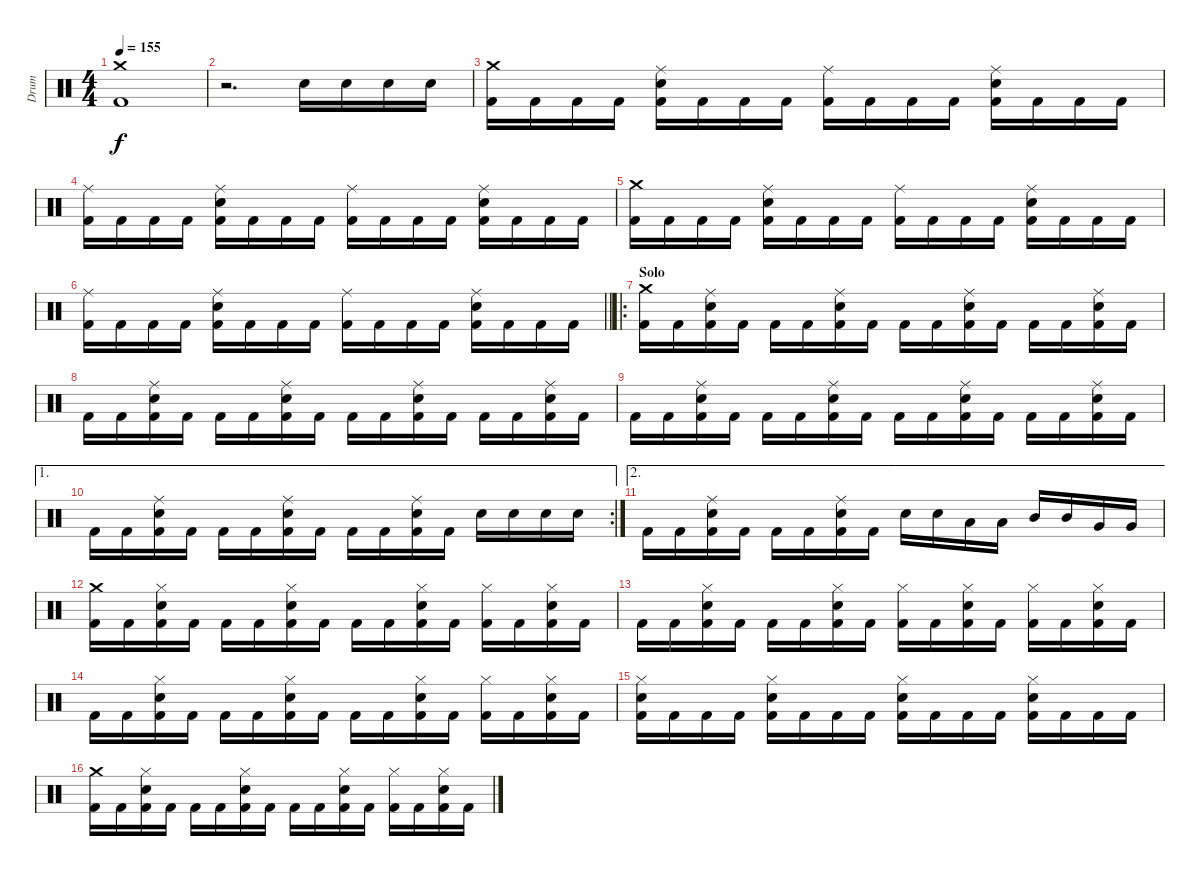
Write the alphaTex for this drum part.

\track ("Drum" "Drum") {instrument percussion}
\staff {score}
\articulation defaults
\ts (4 4)
\tempo 155
\clef neutral
\ks c
("Kick (hit) 2" "Crash medium (hit)").1{dy f} |
r.2{d} "Electric Snare (hit)".16 "Electric Snare (hit)".16 "Electric Snare (hit)".16 "Electric Snare (hit)".16 |
("Kick (hit) 2" "Crash medium (hit)").16 "Kick (hit) 2".16 "Kick (hit) 2".16 "Kick (hit) 2".16 ("Kick (hit) 2" "Ride (middle)" "Electric Snare (hit)").16 "Kick (hit) 2".16 "Kick (hit) 2".16 "Kick (hit) 2".16 ("Kick (hit) 2" "Ride (middle)").16 "Kick (hit) 2".16 "Kick (hit) 2".16 "Kick (hit) 2".16 ("Kick (hit) 2" "Ride (middle)" "Electric Snare (hit)").16 "Kick (hit) 2".16 "Kick (hit) 2".16 "Kick (hit) 2".16 |
("Kick (hit) 2" "Ride (middle)").16 "Kick (hit) 2".16 "Kick (hit) 2".16 "Kick (hit) 2".16 ("Kick (hit) 2" "Ride (middle)" "Electric Snare (hit)").16 "Kick (hit) 2".16 "Kick (hit) 2".16 "Kick (hit) 2".16 ("Kick (hit) 2" "Ride (middle)").16 "Kick (hit) 2".16 "Kick (hit) 2".16 "Kick (hit) 2".16 ("Kick (hit) 2" "Ride (middle)" "Electric Snare (hit)").16 "Kick (hit) 2".16 "Kick (hit) 2".16 "Kick (hit) 2".16 |
("Kick (hit) 2" "Crash medium (hit)").16 "Kick (hit) 2".16 "Kick (hit) 2".16 "Kick (hit) 2".16 ("Kick (hit) 2" "Ride (middle)" "Electric Snare (hit)").16 "Kick (hit) 2".16 "Kick (hit) 2".16 "Kick (hit) 2".16 ("Kick (hit) 2" "Ride (middle)").16 "Kick (hit) 2".16 "Kick (hit) 2".16 "Kick (hit) 2".16 ("Kick (hit) 2" "Ride (middle)" "Electric Snare (hit)").16 "Kick (hit) 2".16 "Kick (hit) 2".16 "Kick (hit) 2".16 |
\barLineRight lightlight
("Kick (hit) 2" "Ride (middle)").16 "Kick (hit) 2".16 "Kick (hit) 2".16 "Kick (hit) 2".16 ("Kick (hit) 2" "Ride (middle)" "Electric Snare (hit)").16 "Kick (hit) 2".16 "Kick (hit) 2".16 "Kick (hit) 2".16 ("Kick (hit) 2" "Ride (middle)").16 "Kick (hit) 2".16 "Kick (hit) 2".16 "Kick (hit) 2".16 ("Kick (hit) 2" "Ride (middle)" "Electric Snare (hit)").16 "Kick (hit) 2".16 "Kick (hit) 2".16 "Kick (hit) 2".16 |
\ro
\section ("" "Solo")
("Kick (hit) 2" "Crash medium (hit)").16 "Kick (hit) 2".16 ("Kick (hit) 2" "Ride (middle)" "Electric Snare (hit)").16 "Kick (hit) 2".16 "Kick (hit) 2".16 "Kick (hit) 2".16 ("Kick (hit) 2" "Ride (middle)" "Electric Snare (hit)").16 "Kick (hit) 2".16 "Kick (hit) 2".16 "Kick (hit) 2".16 ("Kick (hit) 2" "Ride (middle)" "Electric Snare (hit)").16 "Kick (hit) 2".16 "Kick (hit) 2".16 "Kick (hit) 2".16 ("Kick (hit) 2" "Ride (middle)" "Electric Snare (hit)").16 "Kick (hit) 2".16 |
"Kick (hit) 2".16 "Kick (hit) 2".16 ("Kick (hit) 2" "Ride (middle)" "Electric Snare (hit)").16 "Kick (hit) 2".16 "Kick (hit) 2".16 "Kick (hit) 2".16 ("Kick (hit) 2" "Ride (middle)" "Electric Snare (hit)").16 "Kick (hit) 2".16 "Kick (hit) 2".16 "Kick (hit) 2".16 ("Kick (hit) 2" "Ride (middle)" "Electric Snare (hit)").16 "Kick (hit) 2".16 "Kick (hit) 2".16 "Kick (hit) 2".16 ("Kick (hit) 2" "Ride (middle)" "Electric Snare (hit)").16 "Kick (hit) 2".16 |
"Kick (hit) 2".16 "Kick (hit) 2".16 ("Kick (hit) 2" "Ride (middle)" "Electric Snare (hit)").16 "Kick (hit) 2".16 "Kick (hit) 2".16 "Kick (hit) 2".16 ("Kick (hit) 2" "Ride (middle)" "Electric Snare (hit)").16 "Kick (hit) 2".16 "Kick (hit) 2".16 "Kick (hit) 2".16 ("Kick (hit) 2" "Ride (middle)" "Electric Snare (hit)").16 "Kick (hit) 2".16 "Kick (hit) 2".16 "Kick (hit) 2".16 ("Kick (hit) 2" "Ride (middle)" "Electric Snare (hit)").16 "Kick (hit) 2".16 |
\ae 1
\rc 2 "Kick (hit) 2".16 "Kick (hit) 2".16
("Kick (hit) 2" "Ride (middle)" "Electric Snare (hit)").16 "Kick (hit) 2".16 "Kick (hit) 2".16 "Kick (hit) 2".16 ("Kick (hit) 2" "Ride (middle)" "Electric Snare (hit)").16 "Kick (hit) 2".16 "Kick (hit) 2".16 "Kick (hit) 2".16 ("Kick (hit) 2" "Ride (middle)" "Electric Snare (hit)").16 "Kick (hit) 2".16 "Electric Snare (hit)".16 "Electric Snare (hit)".16 "Electric Snare (hit)".16 "Electric Snare (hit)".16 |
\ae 2 "Kick (hit) 2".16 "Kick (hit) 2".16
("Kick (hit) 2" "Ride (middle)" "Electric Snare (hit)").16 "Kick (hit) 2".16 "Kick (hit) 2".16 "Kick (hit) 2".16 ("Kick (hit) 2" "Ride (middle)" "Electric Snare (hit)").16 "Kick (hit) 2".16 "Electric Snare (hit)".16 "Electric Snare (hit)".16 "Low Tom (hit)".16 "Low Tom (hit)".16 "Mid Tom (hit)".16 "Mid Tom (hit)".16 "Very Low Tom (hit)".16 "Very Low Tom (hit)".16 |
("Kick (hit) 2" "Crash medium (hit)").16 "Kick (hit) 2".16 ("Kick (hit) 2" "Hi-Hat (closed)" "Electric Snare (hit)").16 "Kick (hit) 2".16 "Kick (hit) 2".16 "Kick (hit) 2".16 ("Kick (hit) 2" "Hi-Hat (closed)" "Electric Snare (hit)").16 "Kick (hit) 2".16 "Kick (hit) 2".16 "Kick (hit) 2".16 ("Kick (hit) 2" "Hi-Hat (closed)" "Electric Snare (hit)").16 "Kick (hit) 2".16 ("Kick (hit) 2" "Hi-Hat (closed)").16 "Kick (hit) 2".16 ("Kick (hit) 2" "Hi-Hat (closed)" "Electric Snare (hit)").16 "Kick (hit) 2".16 |
"Kick (hit) 2".16 "Kick (hit) 2".16 ("Kick (hit) 2" "Hi-Hat (closed)" "Electric Snare (hit)").16 "Kick (hit) 2".16 "Kick (hit) 2".16 "Kick (hit) 2".16 ("Kick (hit) 2" "Hi-Hat (closed)" "Electric Snare (hit)").16 "Kick (hit) 2".16 ("Kick (hit) 2" "Hi-Hat (closed)").16 "Kick (hit) 2".16 ("Kick (hit) 2" "Hi-Hat (closed)" "Electric Snare (hit)").16 "Kick (hit) 2".16 ("Kick (hit) 2" "Hi-Hat (closed)").16 "Kick (hit) 2".16 ("Kick (hit) 2" "Hi-Hat (closed)" "Electric Snare (hit)").16 "Kick (hit) 2".16 |
"Kick (hit) 2".16 "Kick (hit) 2".16 ("Kick (hit) 2" "Hi-Hat (closed)" "Electric Snare (hit)").16 "Kick (hit) 2".16 "Kick (hit) 2".16 "Kick (hit) 2".16 ("Kick (hit) 2" "Hi-Hat (closed)" "Electric Snare (hit)").16 "Kick (hit) 2".16 "Kick (hit) 2".16 "Kick (hit) 2".16 ("Kick (hit) 2" "Hi-Hat (closed)" "Electric Snare (hit)").16 "Kick (hit) 2".16 ("Kick (hit) 2" "Hi-Hat (closed)").16 "Kick (hit) 2".16 ("Kick (hit) 2" "Hi-Hat (closed)" "Electric Snare (hit)").16 "Kick (hit) 2".16 |
("Kick (hit) 2" "Hi-Hat (closed)" "Electric Snare (hit)").16 "Kick (hit) 2".16 "Kick (hit) 2".16 "Kick (hit) 2".16 ("Kick (hit) 2" "Hi-Hat (closed)" "Electric Snare (hit)").16 "Kick (hit) 2".16 "Kick (hit) 2".16 "Kick (hit) 2".16 ("Kick (hit) 2" "Hi-Hat (closed)" "Electric Snare (hit)").16 "Kick (hit) 2".16 "Kick (hit) 2".16 "Kick (hit) 2".16 ("Kick (hit) 2" "Hi-Hat (closed)" "Electric Snare (hit)").16 "Kick (hit) 2".16 "Kick (hit) 2".16 "Kick (hit) 2".16 |
("Kick (hit) 2" "Crash medium (hit)").16 "Kick (hit) 2".16 ("Kick (hit) 2" "Hi-Hat (closed)" "Electric Snare (hit)").16 "Kick (hit) 2".16 "Kick (hit) 2".16 "Kick (hit) 2".16 ("Kick (hit) 2" "Hi-Hat (closed)" "Electric Snare (hit)").16 "Kick (hit) 2".16 "Kick (hit) 2".16 "Kick (hit) 2".16 ("Kick (hit) 2" "Hi-Hat (closed)" "Electric Snare (hit)").16 "Kick (hit) 2".16 ("Kick (hit) 2" "Hi-Hat (closed)").16 "Kick (hit) 2".16 ("Kick (hit) 2" "Hi-Hat (closed)" "Electric Snare (hit)").16 "Kick (hit) 2".16
